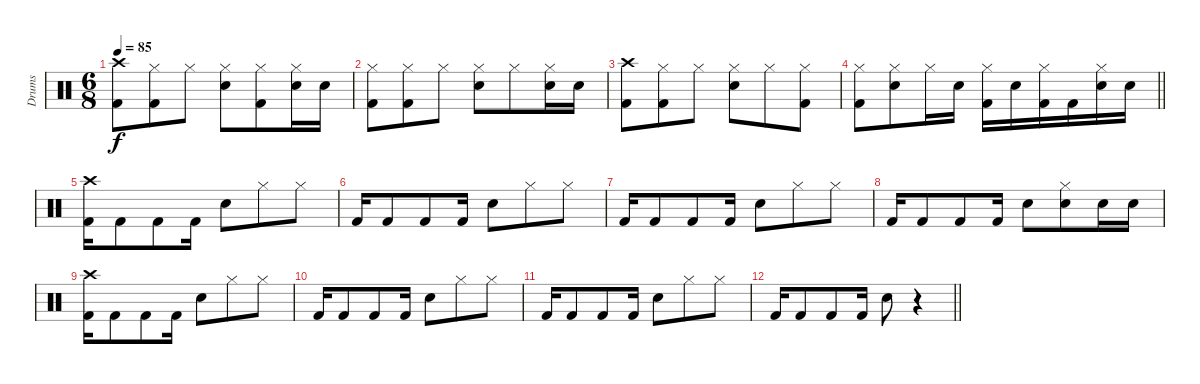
\track ("Drums" "Drums") {instrument percussion}
\staff {score}
\articulation defaults
\ts (6 8)
\tempo 85
\clef neutral
\ks c
("Crash high (hit)" "Kick (hit) 2").8{dy f} ("Hi-Hat (closed)" "Kick (hit) 2").8 "Hi-Hat (closed)".8 ("Hi-Hat (closed)" "Snare (hit) 2").8 ("Hi-Hat (closed)" "Kick (hit) 2").8 ("Hi-Hat (closed)" "Snare (hit) 2").16 "Snare (hit) 2".16 |
("Hi-Hat (closed)" "Kick (hit) 2").8 ("Hi-Hat (closed)" "Kick (hit) 2").8 "Hi-Hat (closed)".8 ("Hi-Hat (closed)" "Snare (hit) 2").8 "Hi-Hat (closed)".8 ("Hi-Hat (closed)" "Snare (hit) 2").16 "Snare (hit) 2".16 |
("Crash high (hit)" "Kick (hit) 2").8 ("Hi-Hat (closed)" "Kick (hit) 2").8 "Hi-Hat (closed)".8 ("Hi-Hat (closed)" "Snare (hit) 2").8 "Hi-Hat (closed)".8 ("Hi-Hat (closed)" "Kick (hit) 2").8 |
\barLineRight lightlight
("Hi-Hat (closed)" "Kick (hit) 2").8 ("Hi-Hat (closed)" "Snare (hit) 2").8 "Hi-Hat (closed)".16 "Snare (hit) 2".16 ("Hi-Hat (closed)" "Kick (hit) 2").16 "Snare (hit) 2".16 ("Hi-Hat (closed)" "Kick (hit) 2").16 "Kick (hit) 2".16 ("Hi-Hat (closed)" "Snare (hit) 2").16 "Snare (hit) 2".16 |
("Crash high (hit)" "Kick (hit) 2").16 "Kick (hit) 2".8 "Kick (hit) 2".8 "Kick (hit) 2".16 "Snare (hit) 2".8 "Hi-Hat (closed)".8 "Hi-Hat (closed)".8 |
"Kick (hit) 2".16 "Kick (hit) 2".8 "Kick (hit) 2".8 "Kick (hit) 2".16 "Snare (hit) 2".8 "Hi-Hat (closed)".8 "Hi-Hat (closed)".8 |
"Kick (hit) 2".16 "Kick (hit) 2".8 "Kick (hit) 2".8 "Kick (hit) 2".16 "Snare (hit) 2".8 "Hi-Hat (closed)".8 "Hi-Hat (closed)".8 |
"Kick (hit) 2".16 "Kick (hit) 2".8 "Kick (hit) 2".8 "Kick (hit) 2".16 "Snare (hit) 2".8 ("Hi-Hat (closed)" "Snare (hit) 2").8 "Snare (hit) 2".16 "Snare (hit) 2".16 |
("Crash high (hit)" "Kick (hit) 2").16 "Kick (hit) 2".8 "Kick (hit) 2".8 "Kick (hit) 2".16 "Snare (hit) 2".8 "Hi-Hat (closed)".8 "Hi-Hat (closed)".8 |
"Kick (hit) 2".16 "Kick (hit) 2".8 "Kick (hit) 2".8 "Kick (hit) 2".16 "Snare (hit) 2".8 "Hi-Hat (closed)".8 "Hi-Hat (closed)".8 |
"Kick (hit) 2".16 "Kick (hit) 2".8 "Kick (hit) 2".8 "Kick (hit) 2".16 "Snare (hit) 2".8 "Hi-Hat (closed)".8 "Hi-Hat (closed)".8 |
\barLineRight lightlight "Kick (hit) 2".16 "Kick (hit) 2".8 "Kick (hit) 2".8 "Kick (hit) 2".16 "Snare (hit) 2".8
r.4
